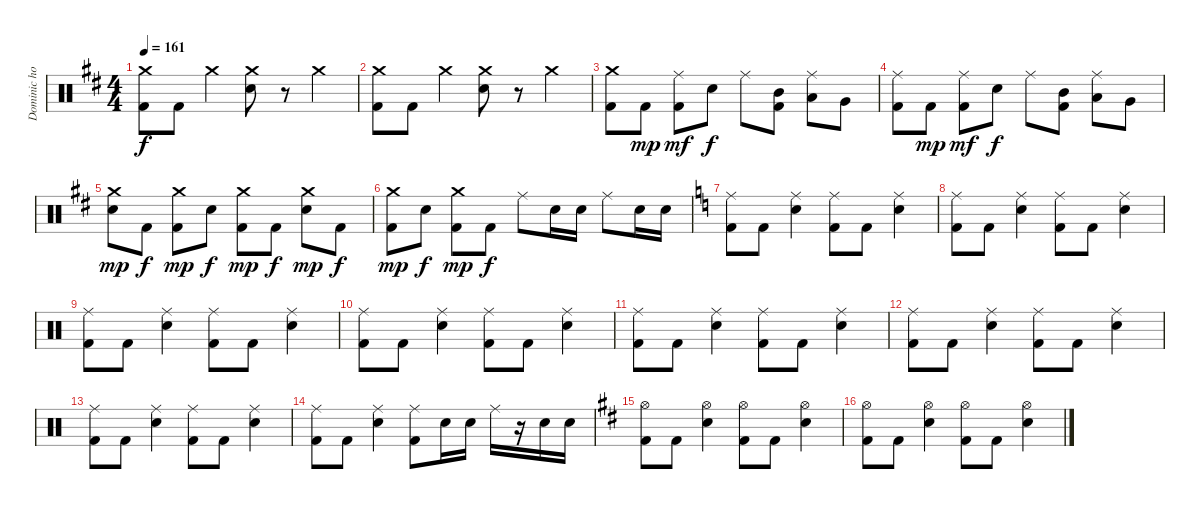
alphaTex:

\track ("Dominic howard" "Dominic ho") {instrument percussion}
\staff {score}
\articulation defaults
\ts (4 4)
\tempo 161
\clef neutral
\ks d
("Crash medium (hit)" "Kick (hit) 2").8{dy f} "Kick (hit) 2".8 "Crash medium (hit)".4 ("Crash medium (hit)" "Electric Snare (hit)").8 r.8 "Crash medium (hit)".4 |
("Crash medium (hit)" "Kick (hit) 2").8 "Kick (hit) 2".8 "Crash medium (hit)".4 ("Crash medium (hit)" "Electric Snare (hit)").8 r.8 "Crash medium (hit)".4 |
("Crash medium (hit)" "Kick (hit) 2").8 "Kick (hit) 2".8{dy mp} ("Ride (middle)" "Kick (hit) 2").8{dy mf} "Electric Snare (hit)".8{dy f} "Ride (middle)".8 ("Mid Tom (hit)" "Kick (hit) 2").8 ("Ride (middle)" "Low Tom (hit)").8 "Very Low Tom (hit)".8 |
("Ride (middle)" "Kick (hit) 2").8 "Kick (hit) 2".8{dy mp} ("Ride (middle)" "Kick (hit) 2").8{dy mf} "Electric Snare (hit)".8{dy f} "Ride (middle)".8 ("Mid Tom (hit)" "Kick (hit) 2").8 ("Ride (middle)" "Low Tom (hit)").8 "Very Low Tom (hit)".8 |
("Crash medium (hit)" "Electric Snare (hit)").8{dy mp} "Kick (hit) 2".8{dy f} ("Crash medium (hit)" "Kick (hit) 2").8{dy mp} "Electric Snare (hit)".8{dy f} ("Crash medium (hit)" "Kick (hit) 2").8{dy mp} "Kick (hit) 2".8{dy f} ("Crash medium (hit)" "Electric Snare (hit)").8{dy mp} "Kick (hit) 2".8{dy f} |
("Crash medium (hit)" "Kick (hit) 2").8{dy mp} "Electric Snare (hit)".8{dy f} ("Crash medium (hit)" "Kick (hit) 2").8{dy mp} "Kick (hit) 2".8{dy f} "Ride (middle)".8 "Electric Snare (hit)".16 "Electric Snare (hit)".16 "Ride (middle)".8 "Electric Snare (hit)".16 "Electric Snare (hit)".16 |
\ks c
("Ride (middle)" "Kick (hit) 2").8 "Kick (hit) 2".8 ("Ride (middle)" "Electric Snare (hit)").4 ("Ride (middle)" "Kick (hit) 2").8 "Kick (hit) 2".8 ("Ride (middle)" "Electric Snare (hit)").4 |
("Ride (middle)" "Kick (hit) 2").8 "Kick (hit) 2".8 ("Ride (middle)" "Electric Snare (hit)").4 ("Ride (middle)" "Kick (hit) 2").8 "Kick (hit) 2".8 ("Ride (middle)" "Electric Snare (hit)").4 |
("Ride (middle)" "Kick (hit) 2").8 "Kick (hit) 2".8 ("Ride (middle)" "Electric Snare (hit)").4 ("Ride (middle)" "Kick (hit) 2").8 "Kick (hit) 2".8 ("Ride (middle)" "Electric Snare (hit)").4 |
("Ride (middle)" "Kick (hit) 2").8 "Kick (hit) 2".8 ("Ride (middle)" "Electric Snare (hit)").4 ("Ride (middle)" "Kick (hit) 2").8 "Kick (hit) 2".8 ("Ride (middle)" "Electric Snare (hit)").4 |
("Ride (middle)" "Kick (hit) 2").8 "Kick (hit) 2".8 ("Ride (middle)" "Electric Snare (hit)").4 ("Ride (middle)" "Kick (hit) 2").8 "Kick (hit) 2".8 ("Ride (middle)" "Electric Snare (hit)").4 |
("Ride (middle)" "Kick (hit) 2").8 "Kick (hit) 2".8 ("Ride (middle)" "Electric Snare (hit)").4 ("Ride (middle)" "Kick (hit) 2").8 "Kick (hit) 2".8 ("Ride (middle)" "Electric Snare (hit)").4 |
("Ride (middle)" "Kick (hit) 2").8 "Kick (hit) 2".8 ("Ride (middle)" "Electric Snare (hit)").4 ("Ride (middle)" "Kick (hit) 2").8 "Kick (hit) 2".8 ("Ride (middle)" "Electric Snare (hit)").4 |
("Ride (middle)" "Kick (hit) 2").8 "Kick (hit) 2".8 ("Ride (middle)" "Electric Snare (hit)").4 ("Ride (middle)" "Kick (hit) 2").8 "Electric Snare (hit)".16 "Electric Snare (hit)".16 "Ride (middle)".16 r.16 "Electric Snare (hit)".16 "Electric Snare (hit)".16 |
\ks d
("Hi-Hat (open)" "Kick (hit) 2").8 "Kick (hit) 2".8 ("Hi-Hat (open)" "Electric Snare (hit)").4 ("Hi-Hat (open)" "Kick (hit) 2").8 "Kick (hit) 2".8 ("Hi-Hat (open)" "Electric Snare (hit)").4 |
("Hi-Hat (open)" "Kick (hit) 2").8 "Kick (hit) 2".8 ("Hi-Hat (open)" "Electric Snare (hit)").4 ("Hi-Hat (open)" "Kick (hit) 2").8 "Kick (hit) 2".8 ("Hi-Hat (open)" "Electric Snare (hit)").4
